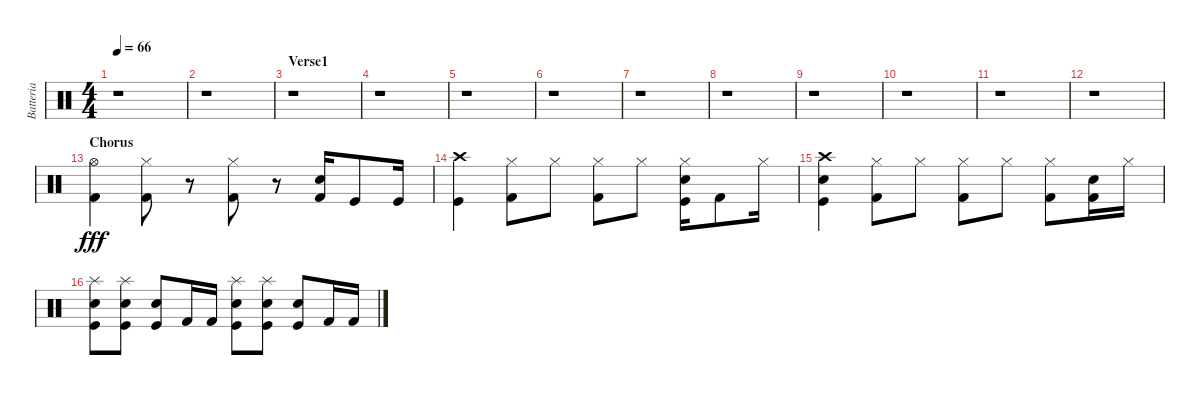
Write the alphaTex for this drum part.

\track ("Batteria" "Batteria") {instrument percussion}
\staff {score}
\articulation defaults
\ts (4 4)
\tempo 66
\clef neutral
\ks c
r.1{dy fff} |
r.1 |
\section ("" "Verse1")
r.1 |
r.1 |
r.1 |
r.1 |
r.1 |
r.1 |
r.1 |
r.1 |
r.1 |
r.1 |
\section ("" "Chorus")
("Hi-Hat (open)" "Kick (hit) 2").4 ("Hi-Hat (closed)" "Kick (hit) 2").8 r.8 ("Hi-Hat (closed)" "Kick (hit) 2").8 r.8 ("Snare (hit) 2" "Kick (hit) 2").16 "Kick (hit)".8 "Kick (hit)".16 |
("Crash high (hit)" "Kick (hit)").4 ("Hi-Hat (closed)" "Kick (hit) 2").8 "Hi-Hat (closed)".8 ("Hi-Hat (closed)" "Kick (hit) 2").8 "Hi-Hat (closed)".8 ("Hi-Hat (closed)" "Snare (hit) 2" "Kick (hit)").16 "Kick (hit) 2".8 "Hi-Hat (closed)".16 |
("Crash high (hit)" "Snare (hit) 2" "Kick (hit)").4 ("Hi-Hat (closed)" "Kick (hit) 2").8 "Hi-Hat (closed)".8 ("Hi-Hat (closed)" "Kick (hit) 2").8 "Hi-Hat (closed)".8 ("Hi-Hat (closed)" "Kick (hit) 2").8 ("Snare (hit) 2" "Kick (hit) 2").16 "Hi-Hat (closed)".16 |
("Splash (hit)" "Snare (hit) 2" "Kick (hit)").8 ("Splash (hit)" "Snare (hit) 2" "Kick (hit)").8 ("Snare (hit) 2" "Kick (hit)").8 "Kick (hit) 2".16 "Kick (hit) 2".16 ("Splash (hit)" "Snare (hit) 2" "Kick (hit)").8 ("Splash (hit)" "Snare (hit) 2" "Kick (hit)").8 ("Snare (hit) 2" "Kick (hit)").8 "Kick (hit) 2".16 "Kick (hit) 2".16
